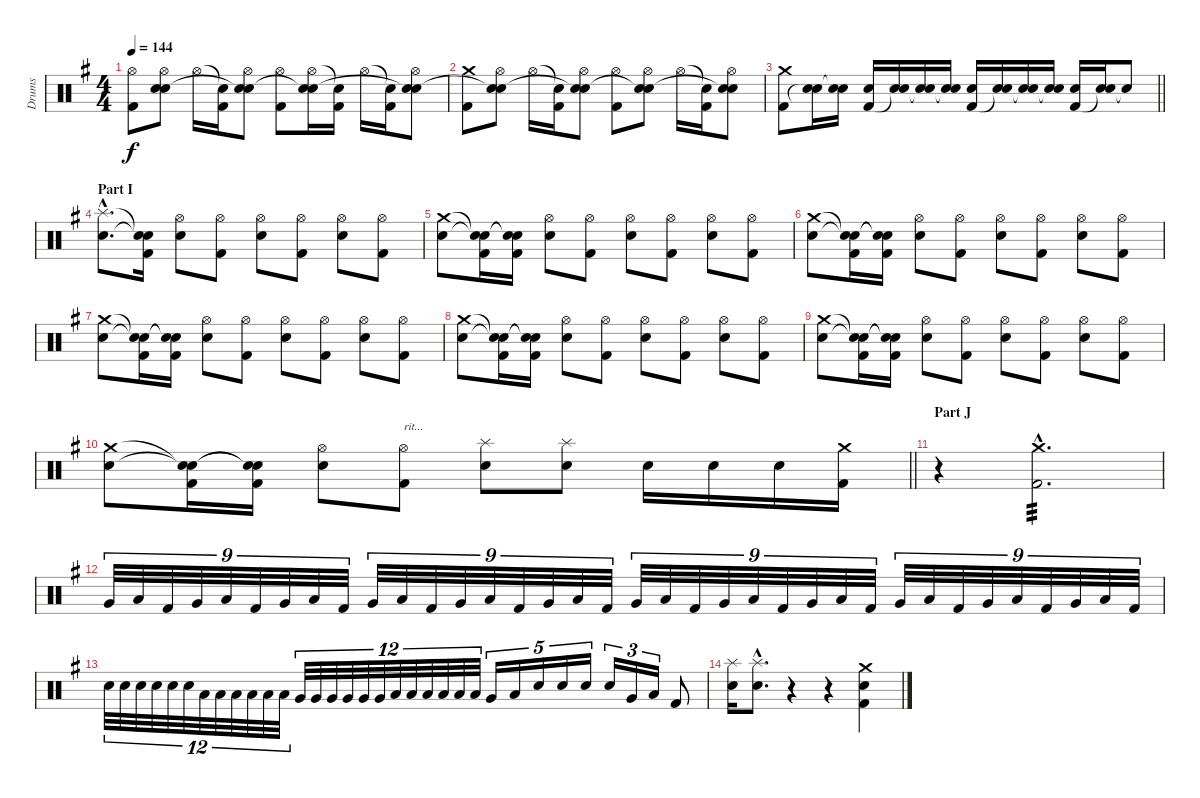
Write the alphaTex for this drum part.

\track ("Drums" "Drums") {instrument percussion}
\staff {score}
\articulation defaults
\ts (4 4)
\tempo 144
\clef neutral
\ks g
("Hi-Hat (open)" "Kick (hit) 2").8{dy f} ("Hi-Hat (open)" "Electric Snare (hit)" "Snare (hit)"{t}).8 "Hi-Hat (open)".16 ("Snare (hit)"{t} "Kick (hit) 2").16 ("Hi-Hat (open)" "Electric Snare (hit)" "Snare (hit)"{t}).8 ("Hi-Hat (open)" "Kick (hit) 2").8 ("Hi-Hat (open)" "Electric Snare (hit)" "Snare (hit)"{t}).16 ("Snare (hit)"{t} "Kick (hit) 2").16 "Hi-Hat (open)".16 ("Snare (hit)"{t} "Kick (hit) 2").16 ("Hi-Hat (open)" "Electric Snare (hit)" "Snare (hit)"{t}).8 |
("Crash medium (hit)" "Kick (hit) 2").8 ("Hi-Hat (open)" "Electric Snare (hit)" "Snare (hit)"{t}).8 "Hi-Hat (open)".16 ("Snare (hit)"{t} "Kick (hit) 2").16 ("Hi-Hat (open)" "Electric Snare (hit)" "Snare (hit)"{t}).8 ("Hi-Hat (open)" "Kick (hit) 2").8 ("Hi-Hat (open)" "Electric Snare (hit)" "Snare (hit)"{t}).8 "Hi-Hat (open)".16 ("Snare (hit)"{t} "Kick (hit) 2").16 ("Hi-Hat (open)" "Electric Snare (hit)" "Snare (hit)"{t}).8 |
\barLineRight lightlight
("Crash medium (hit)" "Kick (hit) 2").8 ("Electric Snare (hit)" "Snare (hit)"{t}).16 ("Electric Snare (hit)" "Snare (hit)"{t}).16 ("Electric Snare (hit)" "Kick (hit) 2").16 ("Electric Snare (hit)" "Snare (hit)"{t}).16 ("Electric Snare (hit)" "Snare (hit)"{t}).16 ("Electric Snare (hit)" "Snare (hit)"{t}).16 ("Electric Snare (hit)" "Kick (hit) 2").16 ("Electric Snare (hit)" "Snare (hit)"{t}).16 ("Electric Snare (hit)" "Snare (hit)"{t}).16 ("Electric Snare (hit)" "Snare (hit)"{t}).16 ("Electric Snare (hit)" "Kick (hit) 2").16 ("Electric Snare (hit)" "Snare (hit)"{t}).16 "Snare (hit)"{t}.8 |
\section ("" "Part I")
("Splash (hit)"{hac} "Electric Snare (hit)"{hac}).8{d} ("Snare (hit)"{t} "Snare (hit)"{t} "Kick (hit) 2").16 ("Hi-Hat (open)" "Electric Snare (hit)").8 ("Hi-Hat (open)" "Kick (hit) 2").8 ("Hi-Hat (open)" "Electric Snare (hit)").8 ("Hi-Hat (open)" "Kick (hit) 2").8 ("Hi-Hat (open)" "Electric Snare (hit)").8 ("Hi-Hat (open)" "Kick (hit) 2").8 |
("Crash medium (hit)" "Electric Snare (hit)").8 ("Snare (hit)"{t} "Snare (hit)"{t} "Kick (hit) 2").16 ("Snare (hit)"{t} "Snare (hit)"{t} "Kick (hit) 2").16 ("Hi-Hat (open)" "Electric Snare (hit)").8 ("Hi-Hat (open)" "Kick (hit) 2").8 ("Hi-Hat (open)" "Electric Snare (hit)").8 ("Hi-Hat (open)" "Kick (hit) 2").8 ("Hi-Hat (open)" "Electric Snare (hit)").8 ("Hi-Hat (open)" "Kick (hit) 2").8 |
("Crash medium (hit)" "Electric Snare (hit)").8 ("Snare (hit)"{t} "Snare (hit)"{t} "Kick (hit) 2").16 ("Snare (hit)"{t} "Snare (hit)"{t} "Kick (hit) 2").16 ("Hi-Hat (open)" "Electric Snare (hit)").8 ("Hi-Hat (open)" "Kick (hit) 2").8 ("Hi-Hat (open)" "Electric Snare (hit)").8 ("Hi-Hat (open)" "Kick (hit) 2").8 ("Hi-Hat (open)" "Electric Snare (hit)").8 ("Hi-Hat (open)" "Kick (hit) 2").8 |
("Crash medium (hit)" "Electric Snare (hit)").8 ("Snare (hit)"{t} "Snare (hit)"{t} "Kick (hit) 2").16 ("Snare (hit)"{t} "Snare (hit)"{t} "Kick (hit) 2").16 ("Hi-Hat (open)" "Electric Snare (hit)").8 ("Hi-Hat (open)" "Kick (hit) 2").8 ("Hi-Hat (open)" "Electric Snare (hit)").8 ("Hi-Hat (open)" "Kick (hit) 2").8 ("Hi-Hat (open)" "Electric Snare (hit)").8 ("Hi-Hat (open)" "Kick (hit) 2").8 |
("Crash medium (hit)" "Electric Snare (hit)").8 ("Snare (hit)"{t} "Snare (hit)"{t} "Kick (hit) 2").16 ("Snare (hit)"{t} "Snare (hit)"{t} "Kick (hit) 2").16 ("Hi-Hat (open)" "Electric Snare (hit)").8 ("Hi-Hat (open)" "Kick (hit) 2").8 ("Hi-Hat (open)" "Electric Snare (hit)").8 ("Hi-Hat (open)" "Kick (hit) 2").8 ("Hi-Hat (open)" "Electric Snare (hit)").8 ("Hi-Hat (open)" "Kick (hit) 2").8 |
("Crash medium (hit)" "Electric Snare (hit)").8 ("Snare (hit)"{t} "Snare (hit)"{t} "Kick (hit) 2").16 ("Snare (hit)"{t} "Snare (hit)"{t} "Kick (hit) 2").16 ("Hi-Hat (open)" "Electric Snare (hit)").8 ("Hi-Hat (open)" "Kick (hit) 2").8 ("Hi-Hat (open)" "Electric Snare (hit)").8 ("Hi-Hat (open)" "Kick (hit) 2").8 ("Hi-Hat (open)" "Electric Snare (hit)").8 ("Hi-Hat (open)" "Kick (hit) 2").8 |
\barLineRight lightlight
("Crash medium (hit)" "Electric Snare (hit)").8 ("Snare (hit)"{t} "Snare (hit)"{t} "Kick (hit) 2").16 ("Snare (hit)"{t} "Snare (hit)"{t} "Kick (hit) 2").16 ("Hi-Hat (open)" "Electric Snare (hit)").8 ("Hi-Hat (open)" "Kick (hit) 2").8{txt "rit..."} ("Splash (hit)" "Electric Snare (hit)").8 ("Splash (hit)" "Electric Snare (hit)").8 "Electric Snare (hit)".16 "Electric Snare (hit)".16 "Electric Snare (hit)".16 ("Crash medium (hit)" "Kick (hit) 2").16 |
\section ("" "Part J")
r.4 ("Crash medium (hit)"{hac} "Kick (hit) 2"{hac}).2{d tp 3} |
"Very Low Tom (hit)".32{tu (9 8)} "Low Floor Tom (hit)".32{tu (9 8)} "Kick (hit) 2".32{tu (9 8)} "Very Low Tom (hit)".32{tu (9 8)} "Low Floor Tom (hit)".32{tu (9 8)} "Kick (hit) 2".32{tu (9 8)} "Very Low Tom (hit)".32{tu (9 8)} "Low Floor Tom (hit)".32{tu (9 8)} "Kick (hit) 2".32{tu (9 8)} "Very Low Tom (hit)".32{tu (9 8)} "Low Floor Tom (hit)".32{tu (9 8)} "Kick (hit) 2".32{tu (9 8)} "Very Low Tom (hit)".32{tu (9 8)} "Low Floor Tom (hit)".32{tu (9 8)} "Kick (hit) 2".32{tu (9 8)} "Very Low Tom (hit)".32{tu (9 8)} "Low Floor Tom (hit)".32{tu (9 8)} "Kick (hit) 2".32{tu (9 8)} "Very Low Tom (hit)".32{tu (9 8)} "Low Floor Tom (hit)".32{tu (9 8)} "Kick (hit) 2".32{tu (9 8)} "Very Low Tom (hit)".32{tu (9 8)} "Low Floor Tom (hit)".32{tu (9 8)} "Kick (hit) 2".32{tu (9 8)} "Very Low Tom (hit)".32{tu (9 8)} "Low Floor Tom (hit)".32{tu (9 8)} "Kick (hit) 2".32{tu (9 8)} "Very Low Tom (hit)".32{tu (9 8)} "Low Floor Tom (hit)".32{tu (9 8)} "Kick (hit) 2".32{tu (9 8)} "Very Low Tom (hit)".32{tu (9 8)} "Low Floor Tom (hit)".32{tu (9 8)} "Kick (hit) 2".32{tu (9 8)} "Very Low Tom (hit)".32{tu (9 8)} "Low Floor Tom (hit)".32{tu (9 8)} "Kick (hit) 2".32{tu (9 8)} |
"Electric Snare (hit)".32{tu (12 8)} "Electric Snare (hit)".32{tu (12 8)} "Electric Snare (hit)".32{tu (12 8)} "Electric Snare (hit)".32{tu (12 8)} "Electric Snare (hit)".32{tu (12 8)} "Electric Snare (hit)".32{tu (12 8)} "Low Tom (hit)".32{tu (12 8)} "Low Tom (hit)".32{tu (12 8)} "Low Tom (hit)".32{tu (12 8)} "Low Tom (hit)".32{tu (12 8)} "Low Tom (hit)".32{tu (12 8)} "Low Tom (hit)".32{tu (12 8)} "Very Low Tom (hit)".32{tu (12 8)} "Very Low Tom (hit)".32{tu (12 8)} "Very Low Tom (hit)".32{tu (12 8)} "Very Low Tom (hit)".32{tu (12 8)} "Very Low Tom (hit)".32{tu (12 8)} "Very Low Tom (hit)".32{tu (12 8)} "Low Floor Tom (hit)".32{tu (12 8)} "Low Floor Tom (hit)".32{tu (12 8)} "Low Floor Tom (hit)".32{tu (12 8)} "Low Floor Tom (hit)".32{tu (12 8)} "Low Floor Tom (hit)".32{tu (12 8)} "Low Floor Tom (hit)".32{tu (12 8)} "Very Low Tom (hit)".16{tu (5 4)} "Low Tom (hit)".16{tu (5 4)} "Electric Snare (hit)".16{tu (5 4)} "Electric Snare (hit)".16{tu (5 4)} "Electric Snare (hit)".16{tu (5 4)} "Electric Snare (hit)".16{tu (3 2)} "Very Low Tom (hit)".16{tu (3 2)} "Low Floor Tom (hit)".16{tu (3 2)} "Kick (hit) 2".8 |
("Splash (hit)" "Electric Snare (hit)").16 ("Splash (hit)"{hac} "Electric Snare (hit)"{hac}).8{d} r.4 r.4 ("Crash medium (hit)" "Electric Snare (hit)" "Kick (hit) 2").4
